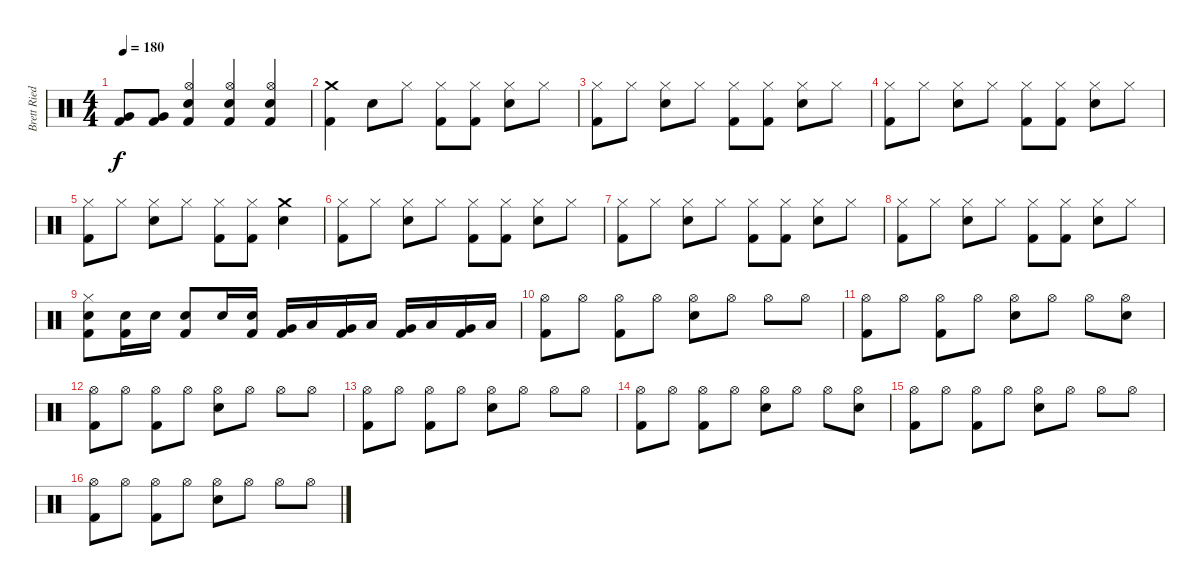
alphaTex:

\track ("Brett Ried" "Brett Ried") {instrument percussion}
\staff {score}
\articulation defaults
\ts (4 4)
\tempo 180
\clef neutral
\ks c
("Very Low Tom (hit)" "Kick (hit) 2").8{dy f} ("Very Low Tom (hit)" "Kick (hit) 2").8 ("Hi-Hat (open)" "Snare (hit) 2" "Kick (hit) 2").4 ("Hi-Hat (open)" "Snare (hit) 2" "Kick (hit) 2").4 ("Hi-Hat (open)" "Snare (hit) 2" "Kick (hit) 2").4 |
("Crash medium (hit)" "Kick (hit) 2").4 "Snare (hit) 2".8 "Hi-Hat (closed)".8 ("Hi-Hat (closed)" "Kick (hit) 2").8 ("Hi-Hat (closed)" "Kick (hit) 2").8 ("Hi-Hat (closed)" "Snare (hit) 2").8 "Hi-Hat (closed)".8 |
("Hi-Hat (closed)" "Kick (hit) 2").8 "Hi-Hat (closed)".8 ("Hi-Hat (closed)" "Snare (hit) 2").8 "Hi-Hat (closed)".8 ("Hi-Hat (closed)" "Kick (hit) 2").8 ("Hi-Hat (closed)" "Kick (hit) 2").8 ("Hi-Hat (closed)" "Snare (hit) 2").8 "Hi-Hat (closed)".8 |
("Hi-Hat (closed)" "Kick (hit) 2").8 "Hi-Hat (closed)".8 ("Hi-Hat (closed)" "Snare (hit) 2").8 "Hi-Hat (closed)".8 ("Hi-Hat (closed)" "Kick (hit) 2").8 ("Hi-Hat (closed)" "Kick (hit) 2").8 ("Hi-Hat (closed)" "Snare (hit) 2").8 "Hi-Hat (closed)".8 |
("Hi-Hat (closed)" "Kick (hit) 2").8 "Hi-Hat (closed)".8 ("Hi-Hat (closed)" "Snare (hit) 2").8 "Hi-Hat (closed)".8 ("Hi-Hat (closed)" "Kick (hit) 2").8 ("Hi-Hat (closed)" "Kick (hit) 2").8 ("Crash medium (hit)" "Snare (hit) 2").4 |
("Hi-Hat (closed)" "Kick (hit) 2").8 "Hi-Hat (closed)".8 ("Hi-Hat (closed)" "Snare (hit) 2").8 "Hi-Hat (closed)".8 ("Hi-Hat (closed)" "Kick (hit) 2").8 ("Hi-Hat (closed)" "Kick (hit) 2").8 ("Hi-Hat (closed)" "Snare (hit) 2").8 "Hi-Hat (closed)".8 |
("Hi-Hat (closed)" "Kick (hit) 2").8 "Hi-Hat (closed)".8 ("Hi-Hat (closed)" "Snare (hit) 2").8 "Hi-Hat (closed)".8 ("Hi-Hat (closed)" "Kick (hit) 2").8 ("Hi-Hat (closed)" "Kick (hit) 2").8 ("Hi-Hat (closed)" "Snare (hit) 2").8 "Hi-Hat (closed)".8 |
("Hi-Hat (closed)" "Kick (hit) 2").8 "Hi-Hat (closed)".8 ("Hi-Hat (closed)" "Snare (hit) 2").8 "Hi-Hat (closed)".8 ("Hi-Hat (closed)" "Kick (hit) 2").8 ("Hi-Hat (closed)" "Kick (hit) 2").8 ("Hi-Hat (closed)" "Snare (hit) 2").8 "Hi-Hat (closed)".8 |
("Hi-Hat (closed)" "Snare (hit) 2" "Kick (hit) 2").8 ("Snare (hit) 2" "Kick (hit) 2").16 "Snare (hit) 2".16 ("Snare (hit) 2" "Kick (hit) 2").8 "Snare (hit) 2".16 ("Snare (hit) 2" "Kick (hit) 2").16 ("Very Low Tom (hit)" "Kick (hit) 2").16 "Low Tom (hit)".16 ("Very Low Tom (hit)" "Kick (hit) 2").16 "Low Tom (hit)".16 ("Very Low Tom (hit)" "Kick (hit) 2").16 "Low Tom (hit)".16 ("Very Low Tom (hit)" "Kick (hit) 2").16 "Low Tom (hit)".16 |
("Hi-Hat (open)" "Kick (hit) 2").8 "Hi-Hat (open)".8 ("Hi-Hat (open)" "Kick (hit) 2").8 "Hi-Hat (open)".8 ("Hi-Hat (open)" "Snare (hit) 2").8 "Hi-Hat (open)".8 "Hi-Hat (open)".8 "Hi-Hat (open)".8 |
("Hi-Hat (open)" "Kick (hit) 2").8 "Hi-Hat (open)".8 ("Hi-Hat (open)" "Kick (hit) 2").8 "Hi-Hat (open)".8 ("Hi-Hat (open)" "Snare (hit) 2").8 "Hi-Hat (open)".8 "Hi-Hat (open)".8 ("Hi-Hat (open)" "Snare (hit) 2").8 |
("Hi-Hat (open)" "Kick (hit) 2").8 "Hi-Hat (open)".8 ("Hi-Hat (open)" "Kick (hit) 2").8 "Hi-Hat (open)".8 ("Hi-Hat (open)" "Snare (hit) 2").8 "Hi-Hat (open)".8 "Hi-Hat (open)".8 "Hi-Hat (open)".8 |
("Hi-Hat (open)" "Kick (hit) 2").8 "Hi-Hat (open)".8 ("Hi-Hat (open)" "Kick (hit) 2").8 "Hi-Hat (open)".8 ("Hi-Hat (open)" "Snare (hit) 2").8 "Hi-Hat (open)".8 "Hi-Hat (open)".8 "Hi-Hat (open)".8 |
("Hi-Hat (open)" "Kick (hit) 2").8 "Hi-Hat (open)".8 ("Hi-Hat (open)" "Kick (hit) 2").8 "Hi-Hat (open)".8 ("Hi-Hat (open)" "Snare (hit) 2").8 "Hi-Hat (open)".8 "Hi-Hat (open)".8 ("Hi-Hat (open)" "Snare (hit) 2").8 |
("Hi-Hat (open)" "Kick (hit) 2").8 "Hi-Hat (open)".8 ("Hi-Hat (open)" "Kick (hit) 2").8 "Hi-Hat (open)".8 ("Hi-Hat (open)" "Snare (hit) 2").8 "Hi-Hat (open)".8 "Hi-Hat (open)".8 "Hi-Hat (open)".8 |
("Hi-Hat (open)" "Kick (hit) 2").8 "Hi-Hat (open)".8 ("Hi-Hat (open)" "Kick (hit) 2").8 "Hi-Hat (open)".8 ("Hi-Hat (open)" "Snare (hit) 2").8 "Hi-Hat (open)".8 "Hi-Hat (open)".8 "Hi-Hat (open)".8
